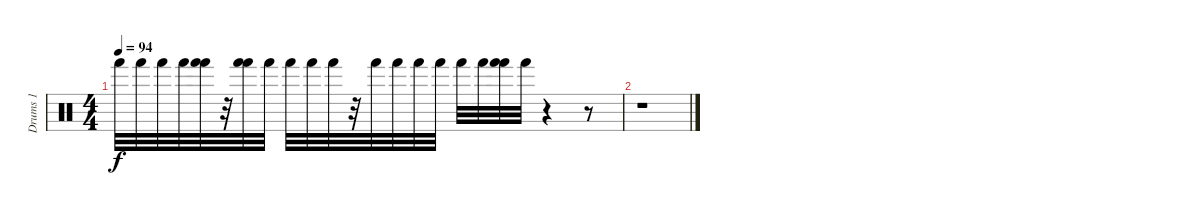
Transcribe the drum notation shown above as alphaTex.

\track ("Drums 1 " "Drums 1 ") {instrument percussion}
\staff {score}
\articulation defaults
\ts (4 4)
\tempo 94
\clef neutral
\ks c "Hand (hit)".32{dy f} "Hand (hit)".32 "Hand (hit)".32 "Hand (hit)".32
("Hand (hit)" "Hand (hit)").32 r.32 ("Hand (hit)" "Hand (hit)").32 "Hand (hit)".32 "Hand (hit)".32 "Hand (hit)".32 "Hand (hit)".32 r.32 "Hand (hit)".32 "Hand (hit)".32 "Hand (hit)".32 "Hand (hit)".32 "Hand (hit)".32 "Hand (hit)".32 ("Hand (hit)" "Hand (hit)").32 "Hand (hit)".32 r.4 r.8 |
r.1
